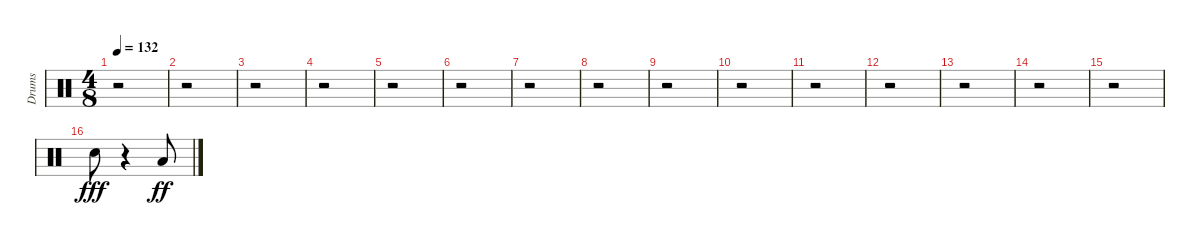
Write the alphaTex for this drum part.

\track ("Drums" "Drums") {instrument percussion}
\staff {score}
\articulation defaults
\ts (4 8)
\tempo 132
\clef neutral
\ks c
r.2{dy ff} |
r.2 |
r.2 |
r.2 |
r.2 |
r.2 |
r.2 |
r.2 |
r.2 |
r.2 |
r.2 |
r.2 |
r.2 |
r.2 |
r.2 |
"Snare (hit) 2".8{dy fff} r.4 "Low Floor Tom (hit)".8{dy ff}
